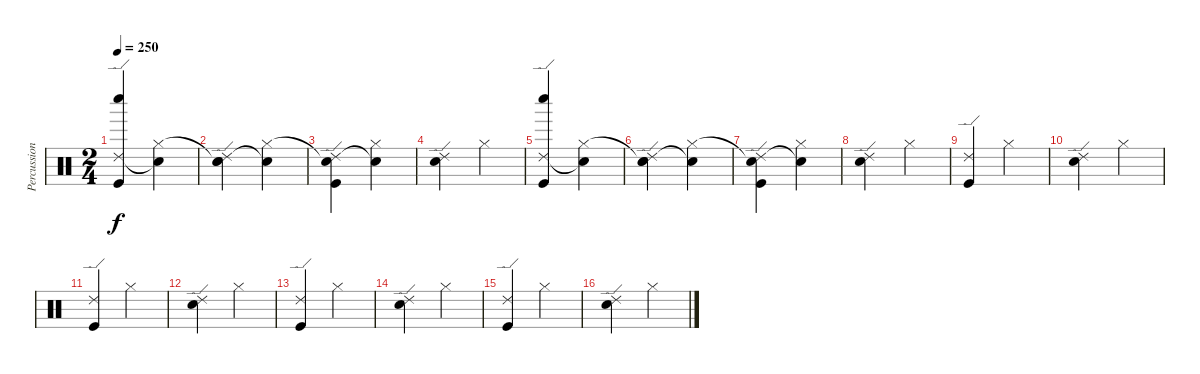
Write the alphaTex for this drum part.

\track ("Percussion" "Percussion") {instrument percussion}
\staff {score}
\articulation defaults
\ts (2 4)
\tempo 250
\clef neutral
\ks c
("Ride (edge) 2" "Whistle low (hit)" "Kick (hit)").4{dy f} ("Snare (hit)"{t} "Hi-Hat (closed)").4 |
("Ride (edge) 2" "Snare (hit)"{t} "Snare (hit) 2").4 ("Snare (hit)"{t} "Hi-Hat (closed)").4 |
("Ride (edge) 2" "Snare (hit)"{t} "Kick (hit)").4 ("Snare (hit)"{t} "Hi-Hat (closed)").4 |
("Ride (edge) 2" "Snare (hit) 2").4 "Hi-Hat (closed)".4 |
("Ride (edge) 2" "Whistle low (hit)" "Kick (hit)").4 ("Snare (hit)"{t} "Hi-Hat (closed)").4 |
("Ride (edge) 2" "Snare (hit)"{t} "Snare (hit) 2").4 ("Snare (hit)"{t} "Hi-Hat (closed)").4 |
("Ride (edge) 2" "Snare (hit)"{t} "Kick (hit)").4 ("Snare (hit)"{t} "Hi-Hat (closed)").4 |
("Ride (edge) 2" "Snare (hit) 2").4 "Hi-Hat (closed)".4 |
("Ride (edge) 2" "Kick (hit)").4 "Hi-Hat (closed)".4 |
("Ride (edge) 2" "Snare (hit) 2").4 "Hi-Hat (closed)".4 |
("Ride (edge) 2" "Kick (hit)").4 "Hi-Hat (closed)".4 |
("Ride (edge) 2" "Snare (hit) 2").4 "Hi-Hat (closed)".4 |
("Ride (edge) 2" "Kick (hit)").4 "Hi-Hat (closed)".4 |
("Ride (edge) 2" "Snare (hit) 2").4 "Hi-Hat (closed)".4 |
("Ride (edge) 2" "Kick (hit)").4 "Hi-Hat (closed)".4 |
("Ride (edge) 2" "Snare (hit) 2").4 "Hi-Hat (closed)".4
